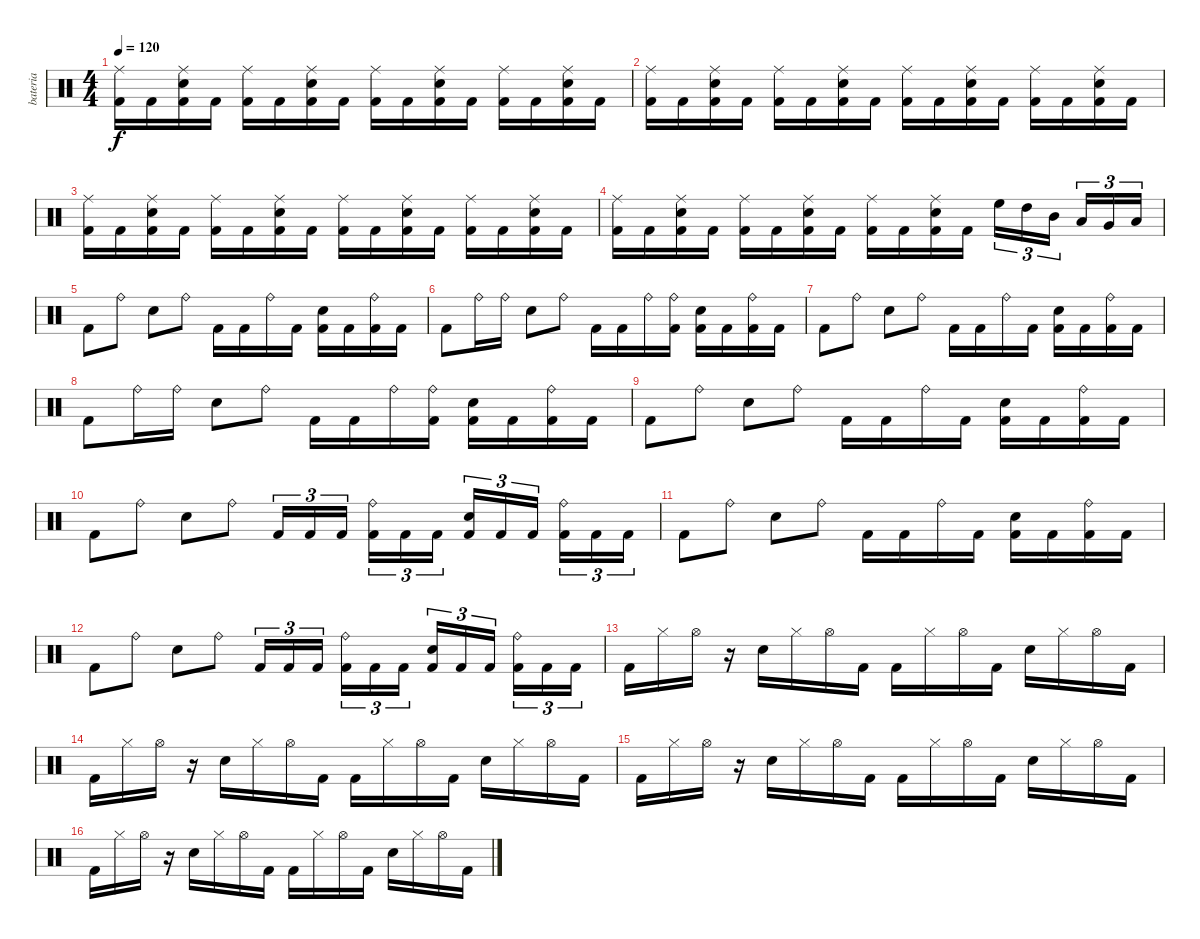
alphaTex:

\track ("bateria" "bateria") {instrument percussion}
\staff {score}
\articulation defaults
\ts (4 4)
\tempo 120
\clef neutral
\ks c
("Ride (middle)" "Kick (hit) 2").16{dy f} "Kick (hit) 2".16 ("Ride (middle)" "Electric Snare (hit)" "Kick (hit) 2").16 "Kick (hit) 2".16 ("Ride (middle)" "Kick (hit) 2").16 "Kick (hit) 2".16 ("Ride (middle)" "Electric Snare (hit)" "Kick (hit) 2").16 "Kick (hit) 2".16 ("Ride (middle)" "Kick (hit) 2").16 "Kick (hit) 2".16 ("Ride (middle)" "Electric Snare (hit)" "Kick (hit) 2").16 "Kick (hit) 2".16 ("Ride (middle)" "Kick (hit) 2").16 "Kick (hit) 2".16 ("Ride (middle)" "Electric Snare (hit)" "Kick (hit) 2").16 "Kick (hit) 2".16 |
("Ride (middle)" "Kick (hit) 2").16 "Kick (hit) 2".16 ("Ride (middle)" "Electric Snare (hit)" "Kick (hit) 2").16 "Kick (hit) 2".16 ("Ride (middle)" "Kick (hit) 2").16 "Kick (hit) 2".16 ("Ride (middle)" "Electric Snare (hit)" "Kick (hit) 2").16 "Kick (hit) 2".16 ("Ride (middle)" "Kick (hit) 2").16 "Kick (hit) 2".16 ("Ride (middle)" "Electric Snare (hit)" "Kick (hit) 2").16 "Kick (hit) 2".16 ("Ride (middle)" "Kick (hit) 2").16 "Kick (hit) 2".16 ("Ride (middle)" "Electric Snare (hit)" "Kick (hit) 2").16 "Kick (hit) 2".16 |
("Ride (middle)" "Kick (hit) 2").16 "Kick (hit) 2".16 ("Ride (middle)" "Electric Snare (hit)" "Kick (hit) 2").16 "Kick (hit) 2".16 ("Ride (middle)" "Kick (hit) 2").16 "Kick (hit) 2".16 ("Ride (middle)" "Electric Snare (hit)" "Kick (hit) 2").16 "Kick (hit) 2".16 ("Ride (middle)" "Kick (hit) 2").16 "Kick (hit) 2".16 ("Ride (middle)" "Electric Snare (hit)" "Kick (hit) 2").16 "Kick (hit) 2".16 ("Ride (middle)" "Kick (hit) 2").16 "Kick (hit) 2".16 ("Ride (middle)" "Electric Snare (hit)" "Kick (hit) 2").16 "Kick (hit) 2".16 |
("Ride (middle)" "Kick (hit) 2").16 "Kick (hit) 2".16 ("Ride (middle)" "Electric Snare (hit)" "Kick (hit) 2").16 "Kick (hit) 2".16 ("Ride (middle)" "Kick (hit) 2").16 "Kick (hit) 2".16 ("Ride (middle)" "Electric Snare (hit)" "Kick (hit) 2").16 "Kick (hit) 2".16 ("Ride (middle)" "Kick (hit) 2").16 "Kick (hit) 2".16 ("Ride (middle)" "Electric Snare (hit)" "Kick (hit) 2").16 "Kick (hit) 2".16 "High Floor Tom (hit)".16{tu (3 2)} "High Tom (hit)".16{tu (3 2)} "Mid Tom (hit)".16{tu (3 2)} "Low Tom (hit)".16{tu (3 2)} "Very Low Tom (hit)".16{tu (3 2)} "Low Floor Tom (hit)".16{tu (3 2)} |
"Kick (hit) 2".8 "Ride (bell)".8 "Electric Snare (hit)".8 "Ride (bell)".8 "Kick (hit) 2".16 "Kick (hit) 2".16 "Ride (bell)".16 "Kick (hit) 2".16 ("Electric Snare (hit)" "Kick (hit) 2").16 "Kick (hit) 2".16 ("Ride (bell)" "Kick (hit) 2").16 "Kick (hit) 2".16 |
"Kick (hit) 2".8 "Ride (bell)".16 "Ride (bell)".16 "Electric Snare (hit)".8 "Ride (bell)".8 "Kick (hit) 2".16 "Kick (hit) 2".16 "Ride (bell)".16 ("Ride (bell)" "Kick (hit) 2").16 ("Electric Snare (hit)" "Kick (hit) 2").16 "Kick (hit) 2".16 ("Ride (bell)" "Kick (hit) 2").16 "Kick (hit) 2".16 |
"Kick (hit) 2".8 "Ride (bell)".8 "Electric Snare (hit)".8 "Ride (bell)".8 "Kick (hit) 2".16 "Kick (hit) 2".16 "Ride (bell)".16 "Kick (hit) 2".16 ("Electric Snare (hit)" "Kick (hit) 2").16 "Kick (hit) 2".16 ("Ride (bell)" "Kick (hit) 2").16 "Kick (hit) 2".16 |
"Kick (hit) 2".8 "Ride (bell)".16 "Ride (bell)".16 "Electric Snare (hit)".8 "Ride (bell)".8 "Kick (hit) 2".16 "Kick (hit) 2".16 "Ride (bell)".16 ("Ride (bell)" "Kick (hit) 2").16 ("Electric Snare (hit)" "Kick (hit) 2").16 "Kick (hit) 2".16 ("Ride (bell)" "Kick (hit) 2").16 "Kick (hit) 2".16 |
"Kick (hit) 2".8 "Ride (bell)".8 "Electric Snare (hit)".8 "Ride (bell)".8 "Kick (hit) 2".16 "Kick (hit) 2".16 "Ride (bell)".16 "Kick (hit) 2".16 ("Electric Snare (hit)" "Kick (hit) 2").16 "Kick (hit) 2".16 ("Ride (bell)" "Kick (hit) 2").16 "Kick (hit) 2".16 |
"Kick (hit) 2".8 "Ride (bell)".8 "Electric Snare (hit)".8 "Ride (bell)".8 "Kick (hit) 2".16{tu (3 2)} "Kick (hit) 2".16{tu (3 2)} "Kick (hit) 2".16{tu (3 2)} ("Ride (bell)" "Kick (hit) 2").16{tu (3 2)} "Kick (hit) 2".16{tu (3 2)} "Kick (hit) 2".16{tu (3 2)} ("Electric Snare (hit)" "Kick (hit) 2").16{tu (3 2)} "Kick (hit) 2".16{tu (3 2)} "Kick (hit) 2".16{tu (3 2)} ("Ride (bell)" "Kick (hit) 2").16{tu (3 2)} "Kick (hit) 2".16{tu (3 2)} "Kick (hit) 2".16{tu (3 2)} |
"Kick (hit) 2".8 "Ride (bell)".8 "Electric Snare (hit)".8 "Ride (bell)".8 "Kick (hit) 2".16 "Kick (hit) 2".16 "Ride (bell)".16 "Kick (hit) 2".16 ("Electric Snare (hit)" "Kick (hit) 2").16 "Kick (hit) 2".16 ("Ride (bell)" "Kick (hit) 2").16 "Kick (hit) 2".16 |
"Kick (hit) 2".8 "Ride (bell)".8 "Electric Snare (hit)".8 "Ride (bell)".8 "Kick (hit) 2".16{tu (3 2)} "Kick (hit) 2".16{tu (3 2)} "Kick (hit) 2".16{tu (3 2)} ("Ride (bell)" "Kick (hit) 2").16{tu (3 2)} "Kick (hit) 2".16{tu (3 2)} "Kick (hit) 2".16{tu (3 2)} ("Electric Snare (hit)" "Kick (hit) 2").16{tu (3 2)} "Kick (hit) 2".16{tu (3 2)} "Kick (hit) 2".16{tu (3 2)} ("Ride (bell)" "Kick (hit) 2").16{tu (3 2)} "Kick (hit) 2".16{tu (3 2)} "Kick (hit) 2".16{tu (3 2)} |
"Kick (hit) 2".16 "Hi-Hat (closed)".16 "Hi-Hat (open)".16 r.16 "Electric Snare (hit)".16 "Hi-Hat (closed)".16 "Hi-Hat (open)".16 "Kick (hit) 2".16 "Kick (hit) 2".16 "Hi-Hat (closed)".16 "Hi-Hat (open)".16 "Kick (hit) 2".16 "Electric Snare (hit)".16 "Hi-Hat (closed)".16 "Hi-Hat (open)".16 "Kick (hit) 2".16 |
"Kick (hit) 2".16 "Hi-Hat (closed)".16 "Hi-Hat (open)".16 r.16 "Electric Snare (hit)".16 "Hi-Hat (closed)".16 "Hi-Hat (open)".16 "Kick (hit) 2".16 "Kick (hit) 2".16 "Hi-Hat (closed)".16 "Hi-Hat (open)".16 "Kick (hit) 2".16 "Electric Snare (hit)".16 "Hi-Hat (closed)".16 "Hi-Hat (open)".16 "Kick (hit) 2".16 |
"Kick (hit) 2".16 "Hi-Hat (closed)".16 "Hi-Hat (open)".16 r.16 "Electric Snare (hit)".16 "Hi-Hat (closed)".16 "Hi-Hat (open)".16 "Kick (hit) 2".16 "Kick (hit) 2".16 "Hi-Hat (closed)".16 "Hi-Hat (open)".16 "Kick (hit) 2".16 "Electric Snare (hit)".16 "Hi-Hat (closed)".16 "Hi-Hat (open)".16 "Kick (hit) 2".16 |
"Kick (hit) 2".16 "Hi-Hat (closed)".16 "Hi-Hat (open)".16 r.16 "Electric Snare (hit)".16 "Hi-Hat (closed)".16 "Hi-Hat (open)".16 "Kick (hit) 2".16 "Kick (hit) 2".16 "Hi-Hat (closed)".16 "Hi-Hat (open)".16 "Kick (hit) 2".16 "Electric Snare (hit)".16 "Hi-Hat (closed)".16 "Hi-Hat (open)".16 "Kick (hit) 2".16
